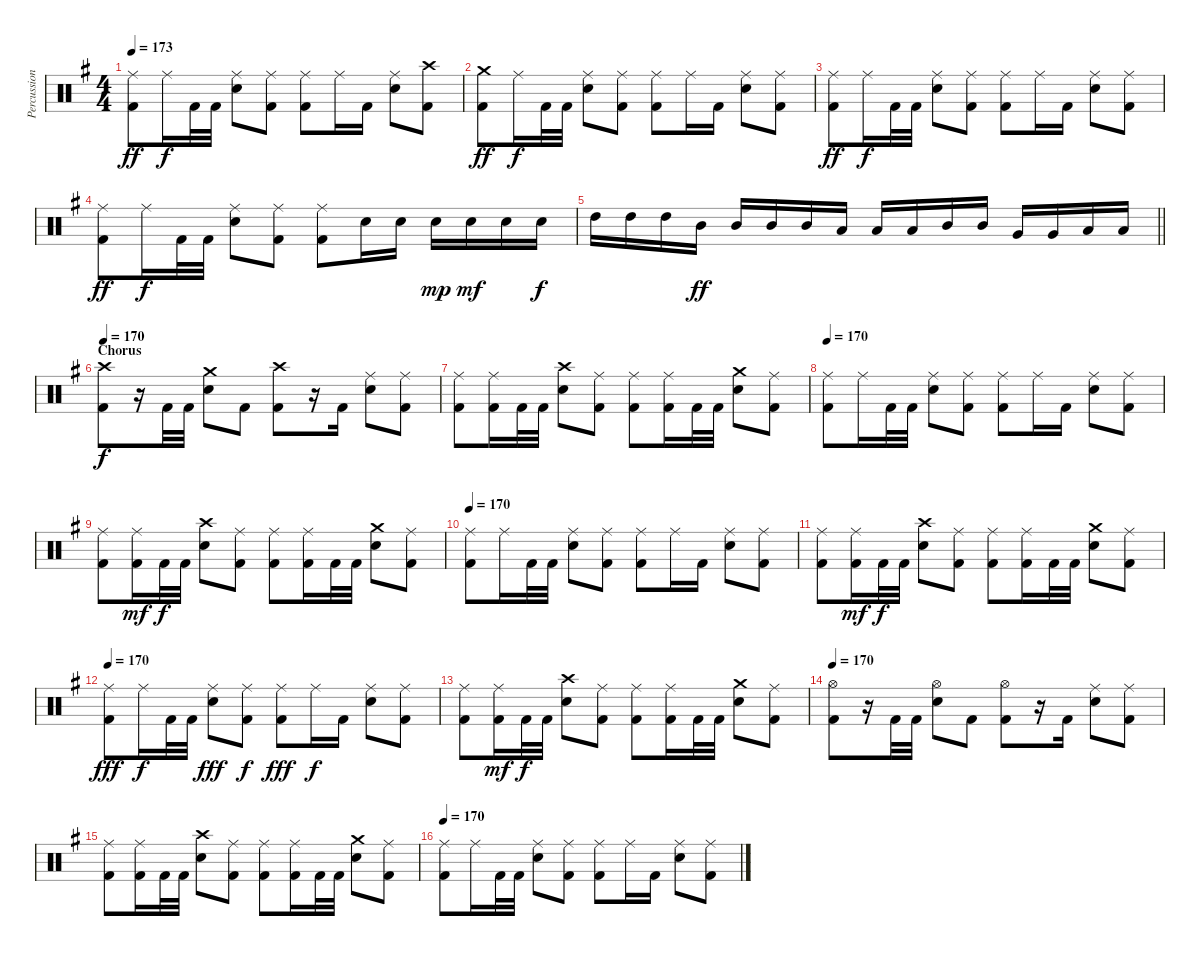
\track ("Percussion" "Percussion") {instrument percussion}
\staff {score}
\articulation defaults
\ts (4 4)
\tempo 173
\clef neutral
\ks g
("Ride (middle)" "Kick (hit) 2").8{dy ff} "Ride (middle)".16{dy f} "Kick (hit) 2".32 "Kick (hit) 2".32 ("Ride (middle)" "Snare (hit) 2").8 ("Ride (middle)" "Kick (hit) 2").8 ("Ride (middle)" "Kick (hit) 2").8 "Ride (middle)".16 "Kick (hit) 2".16 ("Ride (middle)" "Snare (hit) 2").8 ("Crash high (hit)" "Kick (hit) 2").8 |
("Crash medium (hit)" "Kick (hit) 2").8{dy ff} "Ride (middle)".16{dy f} "Kick (hit) 2".32 "Kick (hit) 2".32 ("Ride (middle)" "Snare (hit) 2").8 ("Ride (middle)" "Kick (hit) 2").8 ("Ride (middle)" "Kick (hit) 2").8 "Ride (middle)".16 "Kick (hit) 2".16 ("Ride (middle)" "Snare (hit) 2").8 ("Ride (middle)" "Kick (hit) 2").8 |
("Ride (middle)" "Kick (hit) 2").8{dy ff} "Ride (middle)".16{dy f} "Kick (hit) 2".32 "Kick (hit) 2".32 ("Ride (middle)" "Snare (hit) 2").8 ("Ride (middle)" "Kick (hit) 2").8 ("Ride (middle)" "Kick (hit) 2").8 "Ride (middle)".16 "Kick (hit) 2".16 ("Ride (middle)" "Snare (hit) 2").8 ("Ride (middle)" "Kick (hit) 2").8 |
("Ride (middle)" "Kick (hit) 2").8{dy ff} "Ride (middle)".16{dy f} "Kick (hit) 2".32 "Kick (hit) 2".32 ("Ride (middle)" "Snare (hit) 2").8 ("Ride (middle)" "Kick (hit) 2").8 ("Ride (middle)" "Kick (hit) 2").8 "Snare (hit) 2".16 "Snare (hit) 2".16 "Snare (hit) 2".16{dy mp} "Snare (hit) 2".16{dy mf} "Snare (hit) 2".16 "Snare (hit) 2".16{dy f} |
\barLineRight lightlight "High Tom (hit)".16 "High Tom (hit)".16 "High Tom (hit)".16 "Mid Tom (hit)".16{dy ff} "Mid Tom (hit)".16 "Mid Tom (hit)".16 "Mid Tom (hit)".16 "Low Tom (hit)".16 "Low Tom (hit)".16 "Low Tom (hit)".16 "Mid Tom (hit)".16 "Mid Tom (hit)".16 "Very Low Tom (hit)".16 "Very Low Tom (hit)".16 "Low Floor Tom (hit)".16 "Low Floor Tom (hit)".16
|
\section ("" "Chorus")
\tempo 170
("Crash high (hit)" "Kick (hit) 2").8{dy f} r.16 "Kick (hit) 2".32 "Kick (hit) 2".32 ("Crash medium (hit)" "Snare (hit) 2").8 "Kick (hit) 2".8 ("Crash high (hit)" "Kick (hit) 2").8 r.16 "Kick (hit) 2".16 ("Ride (middle)" "Snare (hit) 2").8 ("Ride (middle)" "Kick (hit) 2").8 |
("Ride (middle)" "Kick (hit) 2").8 ("Ride (middle)" "Kick (hit) 2").16 "Kick (hit) 2".32 "Kick (hit) 2".32 ("Crash high (hit)" "Snare (hit) 2").8 ("Ride (middle)" "Kick (hit) 2").8 ("Ride (middle)" "Kick (hit) 2").8 ("Ride (middle)" "Kick (hit) 2").16 "Kick (hit) 2".32 "Kick (hit) 2".32 ("Crash medium (hit)" "Snare (hit) 2").8 ("Ride (middle)" "Kick (hit) 2").8 |
\tempo 170
("Ride (middle)" "Kick (hit) 2").8 "Ride (middle)".16 "Kick (hit) 2".32 "Kick (hit) 2".32 ("Ride (middle)" "Snare (hit) 2").8 ("Ride (middle)" "Kick (hit) 2").8 ("Ride (middle)" "Kick (hit) 2").8 "Ride (middle)".16 "Kick (hit) 2".16 ("Ride (middle)" "Snare (hit) 2").8 ("Ride (middle)" "Kick (hit) 2").8 |
("Ride (middle)" "Kick (hit) 2").8 ("Ride (middle)" "Kick (hit) 2").16{dy mf} "Kick (hit) 2".32{dy f} "Kick (hit) 2".32 ("Crash high (hit)" "Snare (hit) 2").8 ("Ride (middle)" "Kick (hit) 2").8 ("Ride (middle)" "Kick (hit) 2").8 ("Ride (middle)" "Kick (hit) 2").16 "Kick (hit) 2".32 "Kick (hit) 2".32 ("Crash medium (hit)" "Snare (hit) 2").8 ("Ride (middle)" "Kick (hit) 2").8 |
\tempo 170
("Ride (middle)" "Kick (hit) 2").8 "Ride (middle)".16 "Kick (hit) 2".32 "Kick (hit) 2".32 ("Ride (middle)" "Snare (hit) 2").8 ("Ride (middle)" "Kick (hit) 2").8 ("Ride (middle)" "Kick (hit) 2").8 "Ride (middle)".16 "Kick (hit) 2".16 ("Ride (middle)" "Snare (hit) 2").8 ("Ride (middle)" "Kick (hit) 2").8 |
("Ride (middle)" "Kick (hit) 2").8 ("Ride (middle)" "Kick (hit) 2").16{dy mf} "Kick (hit) 2".32{dy f} "Kick (hit) 2".32 ("Crash high (hit)" "Snare (hit) 2").8 ("Ride (middle)" "Kick (hit) 2").8 ("Ride (middle)" "Kick (hit) 2").8 ("Ride (middle)" "Kick (hit) 2").16 "Kick (hit) 2".32 "Kick (hit) 2".32 ("Crash medium (hit)" "Snare (hit) 2").8 ("Ride (middle)" "Kick (hit) 2").8 |
\tempo 170
("Ride (middle)" "Kick (hit) 2").8{dy fff} "Ride (middle)".16{dy f} "Kick (hit) 2".32 "Kick (hit) 2".32 ("Ride (middle)" "Snare (hit) 2").8{dy fff} ("Ride (middle)" "Kick (hit) 2").8{dy f} ("Ride (middle)" "Kick (hit) 2").8{dy fff} "Ride (middle)".16{dy f} "Kick (hit) 2".16 ("Ride (middle)" "Snare (hit) 2").8 ("Ride (middle)" "Kick (hit) 2").8 |
("Ride (middle)" "Kick (hit) 2").8 ("Ride (middle)" "Kick (hit) 2").16{dy mf} "Kick (hit) 2".32{dy f} "Kick (hit) 2".32 ("Crash high (hit)" "Snare (hit) 2").8 ("Ride (middle)" "Kick (hit) 2").8 ("Ride (middle)" "Kick (hit) 2").8 ("Ride (middle)" "Kick (hit) 2").16 "Kick (hit) 2".32 "Kick (hit) 2".32 ("Crash medium (hit)" "Snare (hit) 2").8 ("Ride (middle)" "Kick (hit) 2").8 |
\tempo 170
("Hi-Hat (open)" "Kick (hit) 2").8 r.16 "Kick (hit) 2".32 "Kick (hit) 2".32 ("Hi-Hat (open)" "Snare (hit) 2").8 "Kick (hit) 2".8 ("Hi-Hat (open)" "Kick (hit) 2").8 r.16 "Kick (hit) 2".16 ("Ride (middle)" "Snare (hit) 2").8 ("Ride (middle)" "Kick (hit) 2").8 |
("Ride (middle)" "Kick (hit) 2").8 ("Ride (middle)" "Kick (hit) 2").16 "Kick (hit) 2".32 "Kick (hit) 2".32 ("Crash high (hit)" "Snare (hit) 2").8 ("Ride (middle)" "Kick (hit) 2").8 ("Ride (middle)" "Kick (hit) 2").8 ("Ride (middle)" "Kick (hit) 2").16 "Kick (hit) 2".32 "Kick (hit) 2".32 ("Crash medium (hit)" "Snare (hit) 2").8 ("Ride (middle)" "Kick (hit) 2").8 |
\tempo 170
("Ride (middle)" "Kick (hit) 2").8 "Ride (middle)".16 "Kick (hit) 2".32 "Kick (hit) 2".32 ("Ride (middle)" "Snare (hit) 2").8 ("Ride (middle)" "Kick (hit) 2").8 ("Ride (middle)" "Kick (hit) 2").8 "Ride (middle)".16 "Kick (hit) 2".16 ("Ride (middle)" "Snare (hit) 2").8 ("Ride (middle)" "Kick (hit) 2").8
